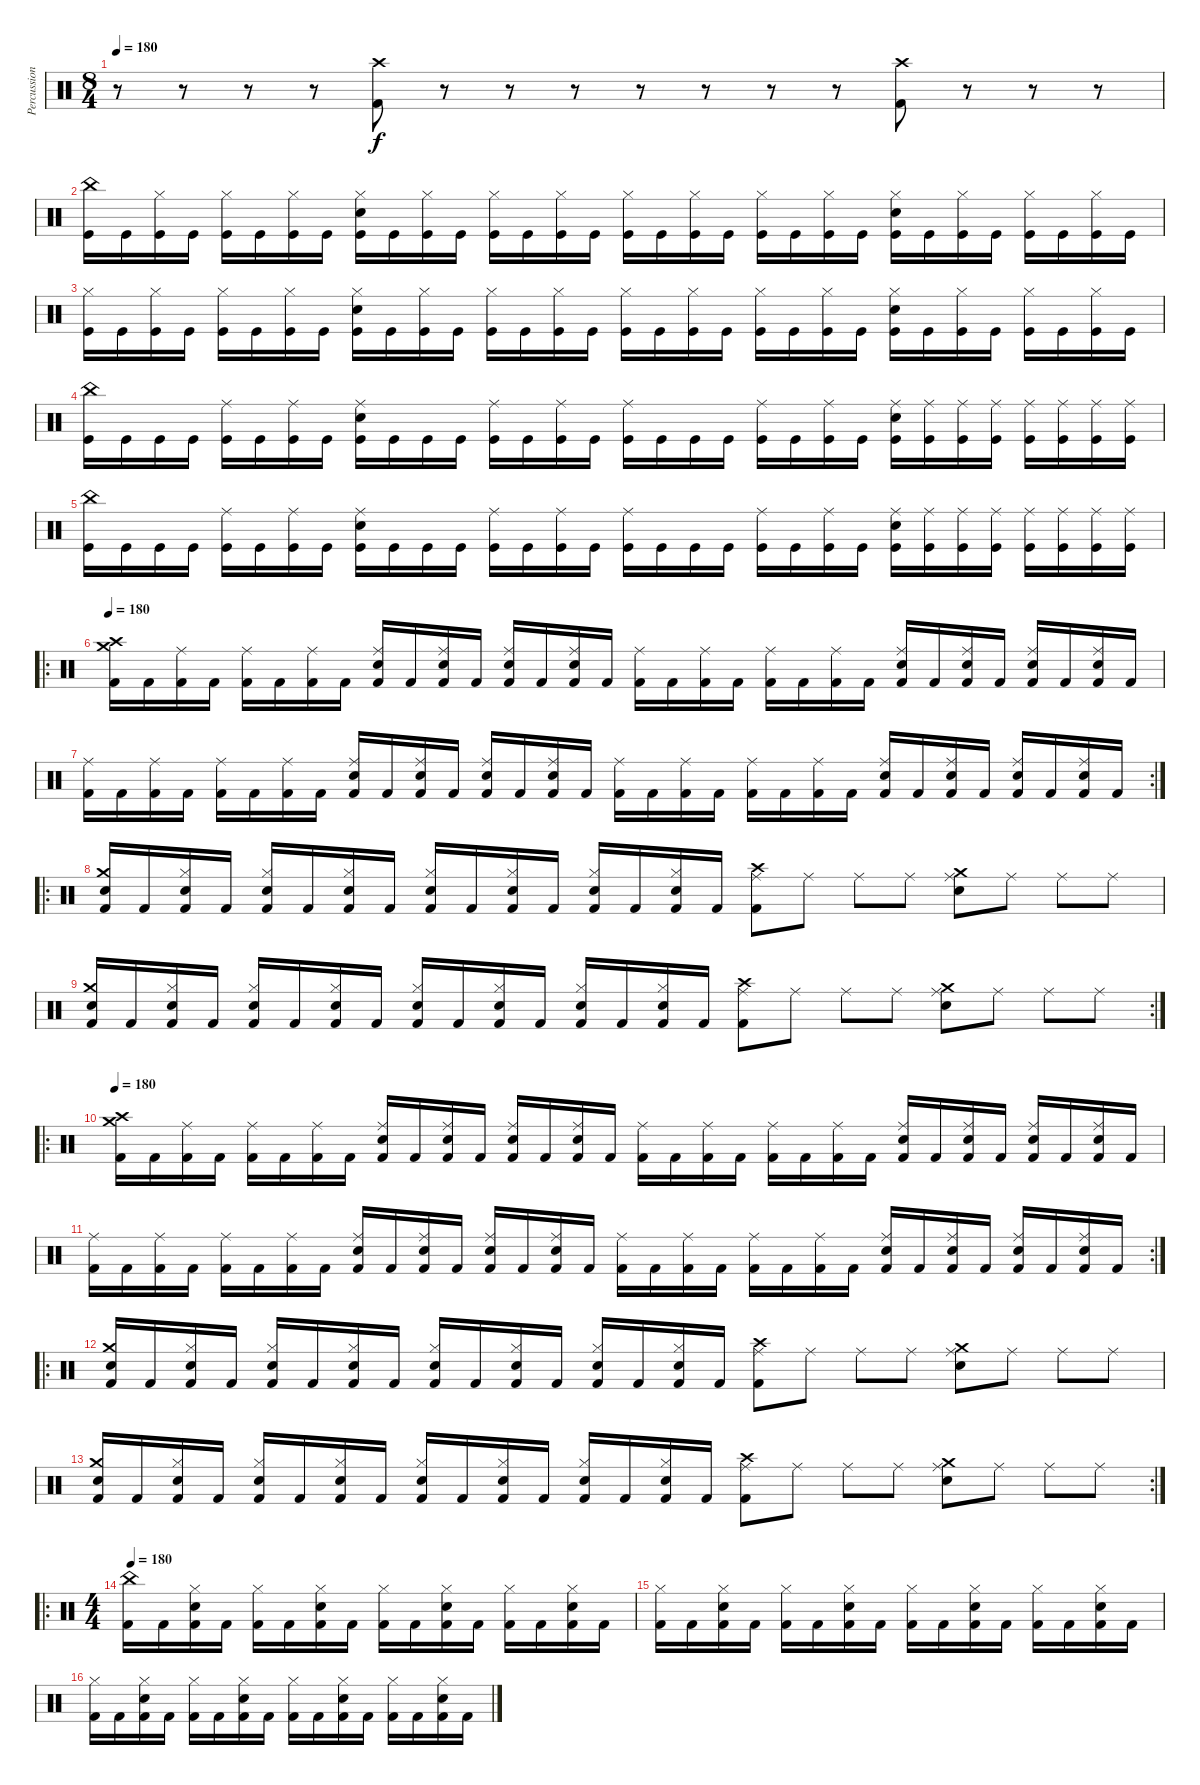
\track ("Percussion" "Percussion") {instrument percussion}
\staff {score}
\articulation defaults
\ts (8 4)
\tempo 180
\clef neutral
\ks c
r.8{dy f} r.8 r.8 r.8 ("Crash high (hit)" "Kick (hit) 2").8 r.8 r.8 r.8 r.8 r.8 r.8 r.8 ("Crash high (hit)" "Kick (hit) 2").8 r.8 r.8 r.8 |
("China (hit)" "Kick (hit)").16 "Kick (hit)".16 ("Hi-Hat (closed)" "Kick (hit)").16 "Kick (hit)".16 ("Hi-Hat (closed)" "Kick (hit)").16 "Kick (hit)".16 ("Hi-Hat (closed)" "Kick (hit)").16 "Kick (hit)".16 ("Hi-Hat (closed)" "Snare (hit) 2" "Kick (hit)").16 "Kick (hit)".16 ("Hi-Hat (closed)" "Kick (hit)").16 "Kick (hit)".16 ("Hi-Hat (closed)" "Kick (hit)").16 "Kick (hit)".16 ("Hi-Hat (closed)" "Kick (hit)").16 "Kick (hit)".16 ("Hi-Hat (closed)" "Kick (hit)").16 "Kick (hit)".16 ("Hi-Hat (closed)" "Kick (hit)").16 "Kick (hit)".16 ("Hi-Hat (closed)" "Kick (hit)").16 "Kick (hit)".16 ("Hi-Hat (closed)" "Kick (hit)").16 "Kick (hit)".16 ("Hi-Hat (closed)" "Snare (hit) 2" "Kick (hit)").16 "Kick (hit)".16 ("Hi-Hat (closed)" "Kick (hit)").16 "Kick (hit)".16 ("Hi-Hat (closed)" "Kick (hit)").16 "Kick (hit)".16 ("Hi-Hat (closed)" "Kick (hit)").16 "Kick (hit)".16 |
("Hi-Hat (closed)" "Kick (hit)").16 "Kick (hit)".16 ("Hi-Hat (closed)" "Kick (hit)").16 "Kick (hit)".16 ("Hi-Hat (closed)" "Kick (hit)").16 "Kick (hit)".16 ("Hi-Hat (closed)" "Kick (hit)").16 "Kick (hit)".16 ("Hi-Hat (closed)" "Snare (hit) 2" "Kick (hit)").16 "Kick (hit)".16 ("Hi-Hat (closed)" "Kick (hit)").16 "Kick (hit)".16 ("Hi-Hat (closed)" "Kick (hit)").16 "Kick (hit)".16 ("Hi-Hat (closed)" "Kick (hit)").16 "Kick (hit)".16 ("Hi-Hat (closed)" "Kick (hit)").16 "Kick (hit)".16 ("Hi-Hat (closed)" "Kick (hit)").16 "Kick (hit)".16 ("Hi-Hat (closed)" "Kick (hit)").16 "Kick (hit)".16 ("Hi-Hat (closed)" "Kick (hit)").16 "Kick (hit)".16 ("Hi-Hat (closed)" "Snare (hit) 2" "Kick (hit)").16 "Kick (hit)".16 ("Hi-Hat (closed)" "Kick (hit)").16 "Kick (hit)".16 ("Hi-Hat (closed)" "Kick (hit)").16 "Kick (hit)".16 ("Hi-Hat (closed)" "Kick (hit)").16 "Kick (hit)".16 |
("China (hit)" "Kick (hit)").16 "Kick (hit)".16 "Kick (hit)".16 "Kick (hit)".16 ("Ride (middle)" "Kick (hit)").16 "Kick (hit)".16 ("Ride (middle)" "Kick (hit)").16 "Kick (hit)".16 ("Ride (middle)" "Snare (hit) 2" "Kick (hit)").16 "Kick (hit)".16 "Kick (hit)".16 "Kick (hit)".16 ("Ride (middle)" "Kick (hit)").16 "Kick (hit)".16 ("Ride (middle)" "Kick (hit)").16 "Kick (hit)".16 ("Ride (middle)" "Kick (hit)").16 "Kick (hit)".16 "Kick (hit)".16 "Kick (hit)".16 ("Ride (middle)" "Kick (hit)").16 "Kick (hit)".16 ("Ride (middle)" "Kick (hit)").16 "Kick (hit)".16 ("Ride (middle)" "Snare (hit) 2" "Kick (hit)").16 ("Ride (middle)" "Kick (hit)").16 ("Ride (middle)" "Kick (hit)").16 ("Ride (middle)" "Kick (hit)").16 ("Ride (middle)" "Kick (hit)").16 ("Ride (middle)" "Kick (hit)").16 ("Ride (middle)" "Kick (hit)").16 ("Ride (middle)" "Kick (hit)").16 |
("China (hit)" "Kick (hit)").16 "Kick (hit)".16 "Kick (hit)".16 "Kick (hit)".16 ("Ride (middle)" "Kick (hit)").16 "Kick (hit)".16 ("Ride (middle)" "Kick (hit)").16 "Kick (hit)".16 ("Ride (middle)" "Snare (hit) 2" "Kick (hit)").16 "Kick (hit)".16 "Kick (hit)".16 "Kick (hit)".16 ("Ride (middle)" "Kick (hit)").16 "Kick (hit)".16 ("Ride (middle)" "Kick (hit)").16 "Kick (hit)".16 ("Ride (middle)" "Kick (hit)").16 "Kick (hit)".16 "Kick (hit)".16 "Kick (hit)".16 ("Ride (middle)" "Kick (hit)").16 "Kick (hit)".16 ("Ride (middle)" "Kick (hit)").16 "Kick (hit)".16 ("Ride (middle)" "Snare (hit) 2" "Kick (hit)").16 ("Ride (middle)" "Kick (hit)").16 ("Ride (middle)" "Kick (hit)").16 ("Ride (middle)" "Kick (hit)").16 ("Ride (middle)" "Kick (hit)").16 ("Ride (middle)" "Kick (hit)").16 ("Ride (middle)" "Kick (hit)").16 ("Ride (middle)" "Kick (hit)").16 |
\ro
\tempo 180
("Crash high (hit)" "Crash medium (hit)" "Kick (hit) 2").16 "Kick (hit) 2".16 ("Ride (middle)" "Kick (hit) 2").16 "Kick (hit) 2".16 ("Ride (middle)" "Kick (hit) 2").16 "Kick (hit) 2".16 ("Ride (middle)" "Kick (hit) 2").16 "Kick (hit) 2".16 ("Ride (middle)" "Electric Snare (hit)" "Kick (hit) 2").16 "Kick (hit) 2".16 ("Ride (middle)" "Electric Snare (hit)" "Kick (hit) 2").16 "Kick (hit) 2".16 ("Ride (middle)" "Electric Snare (hit)" "Kick (hit) 2").16 "Kick (hit) 2".16 ("Ride (middle)" "Electric Snare (hit)" "Kick (hit) 2").16 "Kick (hit) 2".16 ("Ride (middle)" "Kick (hit) 2").16 "Kick (hit) 2".16 ("Ride (middle)" "Kick (hit) 2").16 "Kick (hit) 2".16 ("Ride (middle)" "Kick (hit) 2").16 "Kick (hit) 2".16 ("Ride (middle)" "Kick (hit) 2").16 "Kick (hit) 2".16 ("Ride (middle)" "Electric Snare (hit)" "Kick (hit) 2").16 "Kick (hit) 2".16 ("Ride (middle)" "Electric Snare (hit)" "Kick (hit) 2").16 "Kick (hit) 2".16 ("Ride (middle)" "Electric Snare (hit)" "Kick (hit) 2").16 "Kick (hit) 2".16 ("Ride (middle)" "Electric Snare (hit)" "Kick (hit) 2").16 "Kick (hit) 2".16 |
\rc 2
("Ride (middle)" "Kick (hit) 2").16 "Kick (hit) 2".16 ("Ride (middle)" "Kick (hit) 2").16 "Kick (hit) 2".16 ("Ride (middle)" "Kick (hit) 2").16 "Kick (hit) 2".16 ("Ride (middle)" "Kick (hit) 2").16 "Kick (hit) 2".16 ("Ride (middle)" "Electric Snare (hit)" "Kick (hit) 2").16 "Kick (hit) 2".16 ("Ride (middle)" "Electric Snare (hit)" "Kick (hit) 2").16 "Kick (hit) 2".16 ("Ride (middle)" "Electric Snare (hit)" "Kick (hit) 2").16 "Kick (hit) 2".16 ("Ride (middle)" "Electric Snare (hit)" "Kick (hit) 2").16 "Kick (hit) 2".16 ("Ride (middle)" "Kick (hit) 2").16 "Kick (hit) 2".16 ("Ride (middle)" "Kick (hit) 2").16 "Kick (hit) 2".16 ("Ride (middle)" "Kick (hit) 2").16 "Kick (hit) 2".16 ("Ride (middle)" "Kick (hit) 2").16 "Kick (hit) 2".16 ("Ride (middle)" "Electric Snare (hit)" "Kick (hit) 2").16 "Kick (hit) 2".16 ("Ride (middle)" "Electric Snare (hit)" "Kick (hit) 2").16 "Kick (hit) 2".16 ("Ride (middle)" "Electric Snare (hit)" "Kick (hit) 2").16 "Kick (hit) 2".16 ("Ride (middle)" "Electric Snare (hit)" "Kick (hit) 2").16 "Kick (hit) 2".16 |
\ro
("Crash medium (hit)" "Electric Snare (hit)" "Kick (hit) 2").16 "Kick (hit) 2".16 ("Hi-Hat (closed)" "Electric Snare (hit)" "Kick (hit) 2").16 "Kick (hit) 2".16 ("Hi-Hat (closed)" "Electric Snare (hit)" "Kick (hit) 2").16 "Kick (hit) 2".16 ("Hi-Hat (closed)" "Electric Snare (hit)" "Kick (hit) 2").16 "Kick (hit) 2".16 ("Hi-Hat (closed)" "Electric Snare (hit)" "Kick (hit) 2").16 "Kick (hit) 2".16 ("Hi-Hat (closed)" "Electric Snare (hit)" "Kick (hit) 2").16 "Kick (hit) 2".16 ("Hi-Hat (closed)" "Electric Snare (hit)" "Kick (hit) 2").16 "Kick (hit) 2".16 ("Hi-Hat (closed)" "Electric Snare (hit)" "Kick (hit) 2").16 "Kick (hit) 2".16 ("Crash high (hit)" "Ride (middle)" "Kick (hit) 2").8 "Ride (middle)".8 "Ride (middle)".8 "Ride (middle)".8 ("Crash medium (hit)" "Ride (middle)" "Electric Snare (hit)").8 "Ride (middle)".8 "Ride (middle)".8 "Ride (middle)".8 |
\rc 2
("Crash medium (hit)" "Electric Snare (hit)" "Kick (hit) 2").16 "Kick (hit) 2".16 ("Hi-Hat (closed)" "Electric Snare (hit)" "Kick (hit) 2").16 "Kick (hit) 2".16 ("Hi-Hat (closed)" "Electric Snare (hit)" "Kick (hit) 2").16 "Kick (hit) 2".16 ("Hi-Hat (closed)" "Electric Snare (hit)" "Kick (hit) 2").16 "Kick (hit) 2".16 ("Hi-Hat (closed)" "Electric Snare (hit)" "Kick (hit) 2").16 "Kick (hit) 2".16 ("Hi-Hat (closed)" "Electric Snare (hit)" "Kick (hit) 2").16 "Kick (hit) 2".16 ("Hi-Hat (closed)" "Electric Snare (hit)" "Kick (hit) 2").16 "Kick (hit) 2".16 ("Hi-Hat (closed)" "Electric Snare (hit)" "Kick (hit) 2").16 "Kick (hit) 2".16 ("Crash high (hit)" "Ride (middle)" "Kick (hit) 2").8 "Ride (middle)".8 "Ride (middle)".8 "Ride (middle)".8 ("Crash medium (hit)" "Ride (middle)" "Electric Snare (hit)").8 "Ride (middle)".8 "Ride (middle)".8 "Ride (middle)".8 |
\ro
\tempo 180
("Crash high (hit)" "Crash medium (hit)" "Kick (hit) 2").16 "Kick (hit) 2".16 ("Ride (middle)" "Kick (hit) 2").16 "Kick (hit) 2".16 ("Ride (middle)" "Kick (hit) 2").16 "Kick (hit) 2".16 ("Ride (middle)" "Kick (hit) 2").16 "Kick (hit) 2".16 ("Ride (middle)" "Electric Snare (hit)" "Kick (hit) 2").16 "Kick (hit) 2".16 ("Ride (middle)" "Electric Snare (hit)" "Kick (hit) 2").16 "Kick (hit) 2".16 ("Ride (middle)" "Electric Snare (hit)" "Kick (hit) 2").16 "Kick (hit) 2".16 ("Ride (middle)" "Electric Snare (hit)" "Kick (hit) 2").16 "Kick (hit) 2".16 ("Ride (middle)" "Kick (hit) 2").16 "Kick (hit) 2".16 ("Ride (middle)" "Kick (hit) 2").16 "Kick (hit) 2".16 ("Ride (middle)" "Kick (hit) 2").16 "Kick (hit) 2".16 ("Ride (middle)" "Kick (hit) 2").16 "Kick (hit) 2".16 ("Ride (middle)" "Electric Snare (hit)" "Kick (hit) 2").16 "Kick (hit) 2".16 ("Ride (middle)" "Electric Snare (hit)" "Kick (hit) 2").16 "Kick (hit) 2".16 ("Ride (middle)" "Electric Snare (hit)" "Kick (hit) 2").16 "Kick (hit) 2".16 ("Ride (middle)" "Electric Snare (hit)" "Kick (hit) 2").16 "Kick (hit) 2".16 |
\rc 2
("Ride (middle)" "Kick (hit) 2").16 "Kick (hit) 2".16 ("Ride (middle)" "Kick (hit) 2").16 "Kick (hit) 2".16 ("Ride (middle)" "Kick (hit) 2").16 "Kick (hit) 2".16 ("Ride (middle)" "Kick (hit) 2").16 "Kick (hit) 2".16 ("Ride (middle)" "Electric Snare (hit)" "Kick (hit) 2").16 "Kick (hit) 2".16 ("Ride (middle)" "Electric Snare (hit)" "Kick (hit) 2").16 "Kick (hit) 2".16 ("Ride (middle)" "Electric Snare (hit)" "Kick (hit) 2").16 "Kick (hit) 2".16 ("Ride (middle)" "Electric Snare (hit)" "Kick (hit) 2").16 "Kick (hit) 2".16 ("Ride (middle)" "Kick (hit) 2").16 "Kick (hit) 2".16 ("Ride (middle)" "Kick (hit) 2").16 "Kick (hit) 2".16 ("Ride (middle)" "Kick (hit) 2").16 "Kick (hit) 2".16 ("Ride (middle)" "Kick (hit) 2").16 "Kick (hit) 2".16 ("Ride (middle)" "Electric Snare (hit)" "Kick (hit) 2").16 "Kick (hit) 2".16 ("Ride (middle)" "Electric Snare (hit)" "Kick (hit) 2").16 "Kick (hit) 2".16 ("Ride (middle)" "Electric Snare (hit)" "Kick (hit) 2").16 "Kick (hit) 2".16 ("Ride (middle)" "Electric Snare (hit)" "Kick (hit) 2").16 "Kick (hit) 2".16 |
\ro
("Crash medium (hit)" "Electric Snare (hit)" "Kick (hit) 2").16 "Kick (hit) 2".16 ("Hi-Hat (closed)" "Electric Snare (hit)" "Kick (hit) 2").16 "Kick (hit) 2".16 ("Hi-Hat (closed)" "Electric Snare (hit)" "Kick (hit) 2").16 "Kick (hit) 2".16 ("Hi-Hat (closed)" "Electric Snare (hit)" "Kick (hit) 2").16 "Kick (hit) 2".16 ("Hi-Hat (closed)" "Electric Snare (hit)" "Kick (hit) 2").16 "Kick (hit) 2".16 ("Hi-Hat (closed)" "Electric Snare (hit)" "Kick (hit) 2").16 "Kick (hit) 2".16 ("Hi-Hat (closed)" "Electric Snare (hit)" "Kick (hit) 2").16 "Kick (hit) 2".16 ("Hi-Hat (closed)" "Electric Snare (hit)" "Kick (hit) 2").16 "Kick (hit) 2".16 ("Crash high (hit)" "Ride (middle)" "Kick (hit) 2").8 "Ride (middle)".8 "Ride (middle)".8 "Ride (middle)".8 ("Crash medium (hit)" "Ride (middle)" "Electric Snare (hit)").8 "Ride (middle)".8 "Ride (middle)".8 "Ride (middle)".8 |
\rc 2
("Crash medium (hit)" "Electric Snare (hit)" "Kick (hit) 2").16 "Kick (hit) 2".16 ("Hi-Hat (closed)" "Electric Snare (hit)" "Kick (hit) 2").16 "Kick (hit) 2".16 ("Hi-Hat (closed)" "Electric Snare (hit)" "Kick (hit) 2").16 "Kick (hit) 2".16 ("Hi-Hat (closed)" "Electric Snare (hit)" "Kick (hit) 2").16 "Kick (hit) 2".16 ("Hi-Hat (closed)" "Electric Snare (hit)" "Kick (hit) 2").16 "Kick (hit) 2".16 ("Hi-Hat (closed)" "Electric Snare (hit)" "Kick (hit) 2").16 "Kick (hit) 2".16 ("Hi-Hat (closed)" "Electric Snare (hit)" "Kick (hit) 2").16 "Kick (hit) 2".16 ("Hi-Hat (closed)" "Electric Snare (hit)" "Kick (hit) 2").16 "Kick (hit) 2".16 ("Crash high (hit)" "Ride (middle)" "Kick (hit) 2").8 "Ride (middle)".8 "Ride (middle)".8 "Ride (middle)".8 ("Crash medium (hit)" "Ride (middle)" "Electric Snare (hit)").8 "Ride (middle)".8 "Ride (middle)".8 "Ride (middle)".8 |
\ro
\ts (4 4)
\tempo 180
("China (hit)" "Kick (hit) 2").16 "Kick (hit) 2".16 ("Hi-Hat (closed)" "Electric Snare (hit)" "Kick (hit) 2").16 "Kick (hit) 2".16 ("Hi-Hat (closed)" "Kick (hit) 2").16 "Kick (hit) 2".16 ("Hi-Hat (closed)" "Electric Snare (hit)" "Kick (hit) 2").16 "Kick (hit) 2".16 ("Hi-Hat (closed)" "Kick (hit) 2").16 "Kick (hit) 2".16 ("Hi-Hat (closed)" "Electric Snare (hit)" "Kick (hit) 2").16 "Kick (hit) 2".16 ("Hi-Hat (closed)" "Kick (hit) 2").16 "Kick (hit) 2".16 ("Hi-Hat (closed)" "Electric Snare (hit)" "Kick (hit) 2").16 "Kick (hit) 2".16 |
("Hi-Hat (closed)" "Kick (hit) 2").16 "Kick (hit) 2".16 ("Hi-Hat (closed)" "Electric Snare (hit)" "Kick (hit) 2").16 "Kick (hit) 2".16 ("Hi-Hat (closed)" "Kick (hit) 2").16 "Kick (hit) 2".16 ("Hi-Hat (closed)" "Electric Snare (hit)" "Kick (hit) 2").16 "Kick (hit) 2".16 ("Hi-Hat (closed)" "Kick (hit) 2").16 "Kick (hit) 2".16 ("Hi-Hat (closed)" "Electric Snare (hit)" "Kick (hit) 2").16 "Kick (hit) 2".16 ("Hi-Hat (closed)" "Kick (hit) 2").16 "Kick (hit) 2".16 ("Hi-Hat (closed)" "Electric Snare (hit)" "Kick (hit) 2").16 "Kick (hit) 2".16 |
("Hi-Hat (closed)" "Kick (hit) 2").16 "Kick (hit) 2".16 ("Hi-Hat (closed)" "Electric Snare (hit)" "Kick (hit) 2").16 "Kick (hit) 2".16 ("Hi-Hat (closed)" "Kick (hit) 2").16 "Kick (hit) 2".16 ("Hi-Hat (closed)" "Electric Snare (hit)" "Kick (hit) 2").16 "Kick (hit) 2".16 ("Hi-Hat (closed)" "Kick (hit) 2").16 "Kick (hit) 2".16 ("Hi-Hat (closed)" "Electric Snare (hit)" "Kick (hit) 2").16 "Kick (hit) 2".16 ("Hi-Hat (closed)" "Kick (hit) 2").16 "Kick (hit) 2".16 ("Hi-Hat (closed)" "Electric Snare (hit)" "Kick (hit) 2").16 "Kick (hit) 2".16
